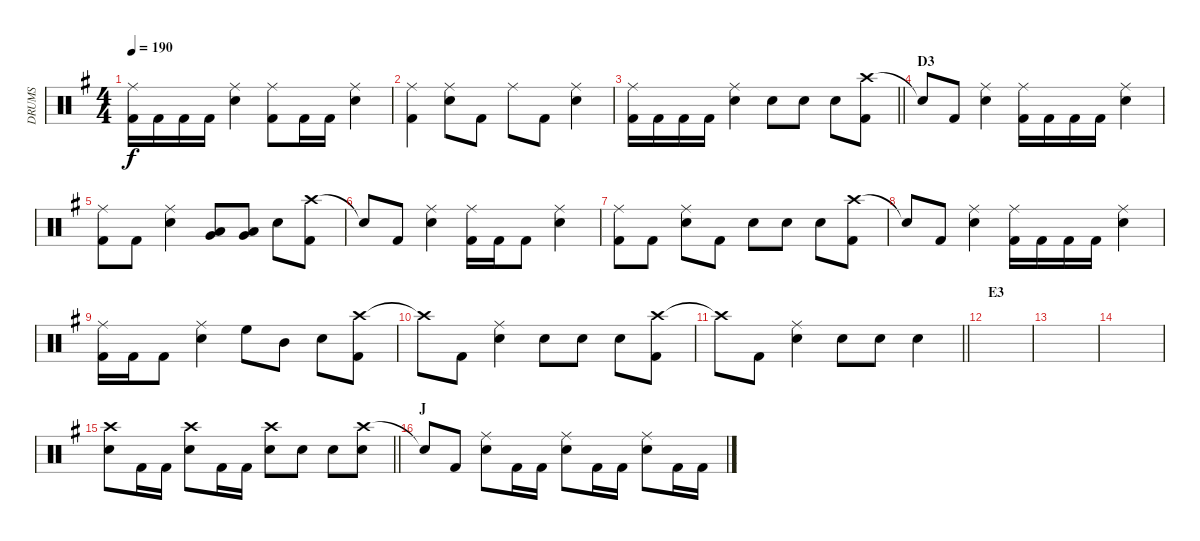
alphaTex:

\track ("DRUMS" "DRUMS") {instrument percussion}
\staff {score}
\articulation defaults
\ts (4 4)
\tempo 190
\clef neutral
\ks g
("Ride (middle)" "Kick (hit) 2").16{dy f} "Kick (hit) 2".16 "Kick (hit) 2".16 "Kick (hit) 2".16 ("Ride (middle)" "Snare (hit) 2").4 ("Ride (middle)" "Kick (hit) 2").8 "Kick (hit) 2".16 "Kick (hit) 2".16 ("Ride (middle)" "Snare (hit) 2").4 |
("Ride (middle)" "Kick (hit) 2").4 ("Ride (middle)" "Snare (hit) 2").8 "Kick (hit) 2".8 "Ride (middle)".8 "Kick (hit) 2".8 ("Ride (middle)" "Snare (hit) 2").4 |
\barLineRight lightlight
("Ride (middle)" "Kick (hit) 2").16 "Kick (hit) 2".16 "Kick (hit) 2".16 "Kick (hit) 2".16 ("Ride (middle)" "Snare (hit) 2").4 "Snare (hit) 2".8 "Snare (hit) 2".8 "Snare (hit) 2".8 ("Crash high (hit)" "Kick (hit) 2").8 |
\section ("" "D3")
"Snare (hit)"{t}.8 "Kick (hit) 2".8 ("Ride (middle)" "Snare (hit) 2").4 ("Ride (middle)" "Kick (hit) 2").16 "Kick (hit) 2".16 "Kick (hit) 2".16 "Kick (hit) 2".16 ("Ride (middle)" "Snare (hit) 2").4 |
("Ride (middle)" "Kick (hit) 2").8 "Kick (hit) 2".8 ("Ride (middle)" "Snare (hit) 2").4 ("Low Tom (hit)" "Very Low Tom (hit)").8 ("Low Tom (hit)" "Very Low Tom (hit)").8 "Snare (hit) 2".8 ("Crash high (hit)" "Kick (hit) 2").8 |
"Snare (hit)"{t}.8 "Kick (hit) 2".8 ("Ride (middle)" "Snare (hit) 2").4 ("Ride (middle)" "Kick (hit) 2").16 "Kick (hit) 2".16 "Kick (hit) 2".8 ("Ride (middle)" "Snare (hit) 2").4 |
("Ride (middle)" "Kick (hit) 2").8 "Kick (hit) 2".8 ("Ride (middle)" "Snare (hit) 2").8 "Kick (hit) 2".8 "Snare (hit) 2".8 "Snare (hit) 2".8 "Snare (hit) 2".8 ("Crash high (hit)" "Kick (hit) 2").8 |
"Snare (hit)"{t}.8 "Kick (hit) 2".8 ("Ride (middle)" "Snare (hit) 2").4 ("Ride (middle)" "Kick (hit) 2").16 "Kick (hit) 2".16 "Kick (hit) 2".16 "Kick (hit) 2".16 ("Ride (middle)" "Snare (hit) 2").4 |
("Ride (middle)" "Kick (hit) 2").16 "Kick (hit) 2".16 "Kick (hit) 2".8 ("Ride (middle)" "Snare (hit) 2").4 "High Floor Tom (hit)".8 "Mid Tom (hit)".8 "Snare (hit) 2".8 ("Crash high (hit)" "Kick (hit) 2").8 |
"Crash high (hit)"{t}.8 "Kick (hit) 2".8 ("Ride (middle)" "Snare (hit) 2").4 "Snare (hit) 2".8 "Snare (hit) 2".8 "Snare (hit) 2".8 ("Crash high (hit)" "Kick (hit) 2").8 |
\barLineRight lightlight "Crash high (hit)"{t}.8 "Kick (hit) 2".8
("Ride (middle)" "Snare (hit) 2").4 "Snare (hit) 2".8 "Snare (hit) 2".8 "Snare (hit) 2".4 |
\section ("" "E3")
|
|
|
\barLineRight lightlight
("Crash high (hit)" "Snare (hit) 2").8 "Kick (hit) 2".16 "Kick (hit) 2".16 ("Crash high (hit)" "Snare (hit) 2").8 "Kick (hit) 2".16 "Kick (hit) 2".16 ("Crash high (hit)" "Snare (hit) 2").8 "Snare (hit) 2".8 "Snare (hit) 2".8 ("Crash high (hit)" "Snare (hit) 2").8 |
\section ("" "J")
"Snare (hit)"{t}.8 "Kick (hit) 2".8 ("Ride (middle)" "Snare (hit) 2").8 "Kick (hit) 2".16 "Kick (hit) 2".16 ("Ride (middle)" "Snare (hit) 2").8 "Kick (hit) 2".16 "Kick (hit) 2".16 ("Ride (middle)" "Snare (hit) 2").8 "Kick (hit) 2".16 "Kick (hit) 2".16
